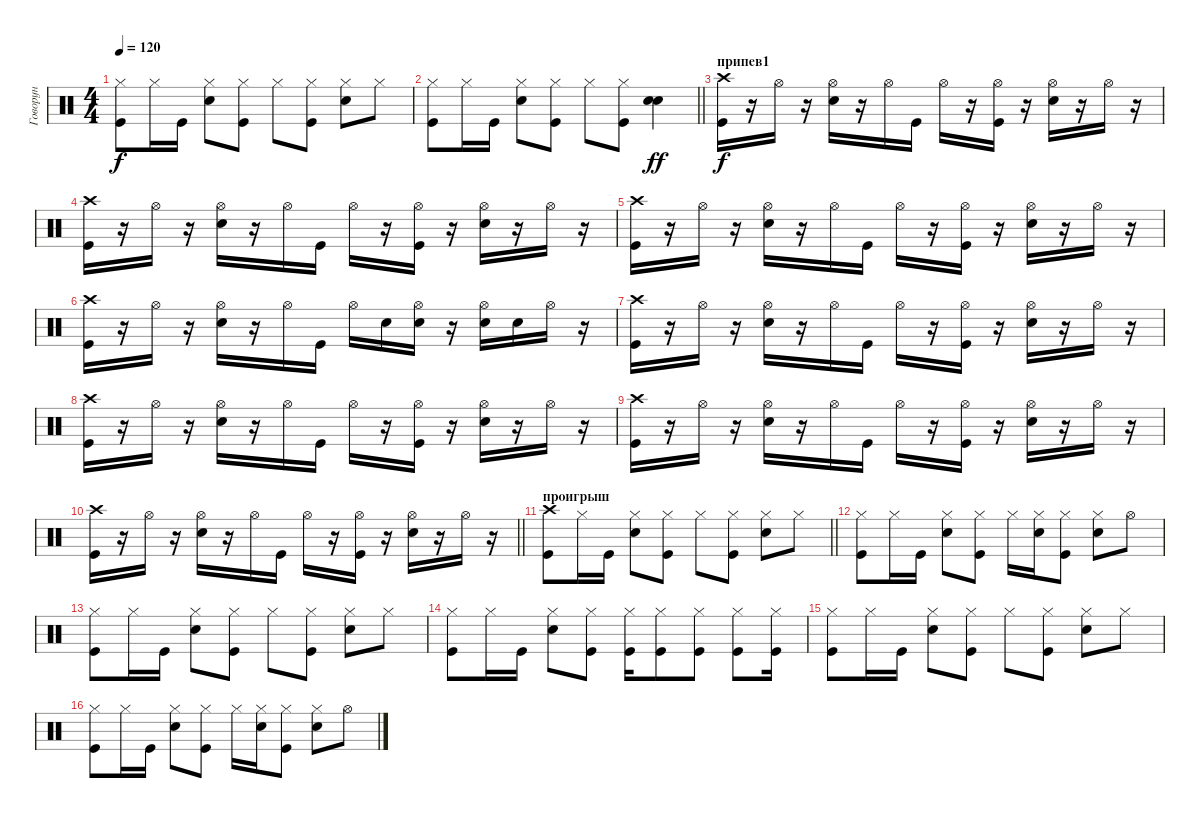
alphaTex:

\track ("Говорун" "Говорун") {instrument percussion}
\staff {score}
\articulation defaults
\ts (4 4)
\tempo 120
\clef neutral
\ks c
("Hi-Hat (closed)" "Kick (hit)").8{dy f} "Hi-Hat (closed)".16 "Kick (hit)".16 ("Hi-Hat (closed)" "Snare (hit) 2").8 ("Hi-Hat (closed)" "Kick (hit)").8 "Hi-Hat (closed)".8 ("Hi-Hat (closed)" "Kick (hit)").8 ("Hi-Hat (closed)" "Snare (hit) 2").8 "Hi-Hat (closed)".8 |
\barLineRight lightlight
("Kick (hit)" "Hi-Hat (closed)").8 "Hi-Hat (closed)".16 "Kick (hit)".16 ("Hi-Hat (closed)" "Snare (hit) 2").8 ("Hi-Hat (closed)" "Kick (hit)").8 "Hi-Hat (closed)".8 ("Hi-Hat (closed)" "Kick (hit)").8 ("Snare (hit) 2" "Snare (hit) 2").4{dy ff} |
\section ("" "припев1")
("Crash high (hit)" "Kick (hit)").16{dy f} r.16 "Hi-Hat (open)".16 r.16 ("Hi-Hat (open)" "Snare (hit) 2").16 r.16 "Hi-Hat (open)".16 "Kick (hit)".16 "Hi-Hat (open)".16 r.16 ("Hi-Hat (open)" "Kick (hit)").16 r.16 ("Hi-Hat (open)" "Snare (hit) 2").16 r.16 "Hi-Hat (open)".16 r.16 |
("Crash high (hit)" "Kick (hit)").16 r.16 "Hi-Hat (open)".16 r.16 ("Hi-Hat (open)" "Snare (hit) 2").16 r.16 "Hi-Hat (open)".16 "Kick (hit)".16 "Hi-Hat (open)".16 r.16 ("Hi-Hat (open)" "Kick (hit)").16 r.16 ("Hi-Hat (open)" "Snare (hit) 2").16 r.16 "Hi-Hat (open)".16 r.16 |
("Crash high (hit)" "Kick (hit)").16 r.16 "Hi-Hat (open)".16 r.16 ("Hi-Hat (open)" "Snare (hit) 2").16 r.16 "Hi-Hat (open)".16 "Kick (hit)".16 "Hi-Hat (open)".16 r.16 ("Hi-Hat (open)" "Kick (hit)").16 r.16 ("Hi-Hat (open)" "Snare (hit) 2").16 r.16 "Hi-Hat (open)".16 r.16 |
("Crash high (hit)" "Kick (hit)").16 r.16 "Hi-Hat (open)".16 r.16 ("Hi-Hat (open)" "Snare (hit) 2").16 r.16 "Hi-Hat (open)".16 "Kick (hit)".16 "Hi-Hat (open)".16 "Snare (hit) 2".16 ("Hi-Hat (open)" "Snare (hit) 2").16 r.16 ("Hi-Hat (open)" "Snare (hit) 2").16 "Snare (hit) 2".16 "Hi-Hat (open)".16 r.16 |
("Crash high (hit)" "Kick (hit)").16 r.16 "Hi-Hat (open)".16 r.16 ("Hi-Hat (open)" "Snare (hit) 2").16 r.16 "Hi-Hat (open)".16 "Kick (hit)".16 "Hi-Hat (open)".16 r.16 ("Hi-Hat (open)" "Kick (hit)").16 r.16 ("Hi-Hat (open)" "Snare (hit) 2").16 r.16 "Hi-Hat (open)".16 r.16 |
("Crash high (hit)" "Kick (hit)").16 r.16 "Hi-Hat (open)".16 r.16 ("Hi-Hat (open)" "Snare (hit) 2").16 r.16 "Hi-Hat (open)".16 "Kick (hit)".16 "Hi-Hat (open)".16 r.16 ("Hi-Hat (open)" "Kick (hit)").16 r.16 ("Hi-Hat (open)" "Snare (hit) 2").16 r.16 "Hi-Hat (open)".16 r.16 |
("Crash high (hit)" "Kick (hit)").16 r.16 "Hi-Hat (open)".16 r.16 ("Hi-Hat (open)" "Snare (hit) 2").16 r.16 "Hi-Hat (open)".16 "Kick (hit)".16 "Hi-Hat (open)".16 r.16 ("Hi-Hat (open)" "Kick (hit)").16 r.16 ("Hi-Hat (open)" "Snare (hit) 2").16 r.16 "Hi-Hat (open)".16 r.16 |
\barLineRight lightlight
("Crash high (hit)" "Kick (hit)").16 r.16 "Hi-Hat (open)".16 r.16 ("Hi-Hat (open)" "Snare (hit) 2").16 r.16 "Hi-Hat (open)".16 "Kick (hit)".16 "Hi-Hat (open)".16 r.16 ("Hi-Hat (open)" "Kick (hit)").16 r.16 ("Hi-Hat (open)" "Snare (hit) 2").16 r.16 "Hi-Hat (open)".16 r.16 |
\section ("" "проигрыш")
\barLineRight lightlight
("Crash high (hit)" "Kick (hit)").8 "Hi-Hat (closed)".16 "Kick (hit)".16 ("Hi-Hat (closed)" "Snare (hit) 2").8 ("Hi-Hat (closed)" "Kick (hit)").8 "Hi-Hat (closed)".8 ("Hi-Hat (closed)" "Kick (hit)").8 ("Hi-Hat (closed)" "Snare (hit) 2").8 "Hi-Hat (closed)".8 |
\section ("" "")
("Hi-Hat (closed)" "Kick (hit)").8 "Hi-Hat (closed)".16 "Kick (hit)".16 ("Hi-Hat (closed)" "Snare (hit) 2").8 ("Hi-Hat (closed)" "Kick (hit)").8 "Hi-Hat (closed)".16 ("Hi-Hat (closed)" "Snare (hit) 2").16 ("Hi-Hat (closed)" "Kick (hit)").8 ("Hi-Hat (closed)" "Snare (hit) 2").8 "Hi-Hat (open)".8 |
("Hi-Hat (closed)" "Kick (hit)").8 "Hi-Hat (closed)".16 "Kick (hit)".16 ("Hi-Hat (closed)" "Snare (hit) 2").8 ("Hi-Hat (closed)" "Kick (hit)").8 "Hi-Hat (closed)".8 ("Hi-Hat (closed)" "Kick (hit)").8 ("Hi-Hat (closed)" "Snare (hit) 2").8 "Hi-Hat (closed)".8 |
("Hi-Hat (closed)" "Kick (hit)").8 "Hi-Hat (closed)".16 "Kick (hit)".16 ("Hi-Hat (closed)" "Snare (hit) 2").8 ("Hi-Hat (closed)" "Kick (hit)").8 ("Kick (hit)" "Hi-Hat (closed)").16 ("Kick (hit)" "Hi-Hat (closed)").8 ("Kick (hit)" "Hi-Hat (closed)").8 ("Kick (hit)" "Hi-Hat (closed)").8 ("Kick (hit)" "Hi-Hat (closed)").16 |
("Hi-Hat (closed)" "Kick (hit)").8 "Hi-Hat (closed)".16 "Kick (hit)".16 ("Hi-Hat (closed)" "Snare (hit) 2").8 ("Hi-Hat (closed)" "Kick (hit)").8 "Hi-Hat (closed)".8 ("Hi-Hat (closed)" "Kick (hit)").8 ("Hi-Hat (closed)" "Snare (hit) 2").8 "Hi-Hat (closed)".8 |
("Hi-Hat (closed)" "Kick (hit)").8 "Hi-Hat (closed)".16 "Kick (hit)".16 ("Hi-Hat (closed)" "Snare (hit) 2").8 ("Hi-Hat (closed)" "Kick (hit)").8 "Hi-Hat (closed)".16 ("Hi-Hat (closed)" "Snare (hit) 2").16 ("Hi-Hat (closed)" "Kick (hit)").8 ("Hi-Hat (closed)" "Snare (hit) 2").8 "Hi-Hat (open)".8
